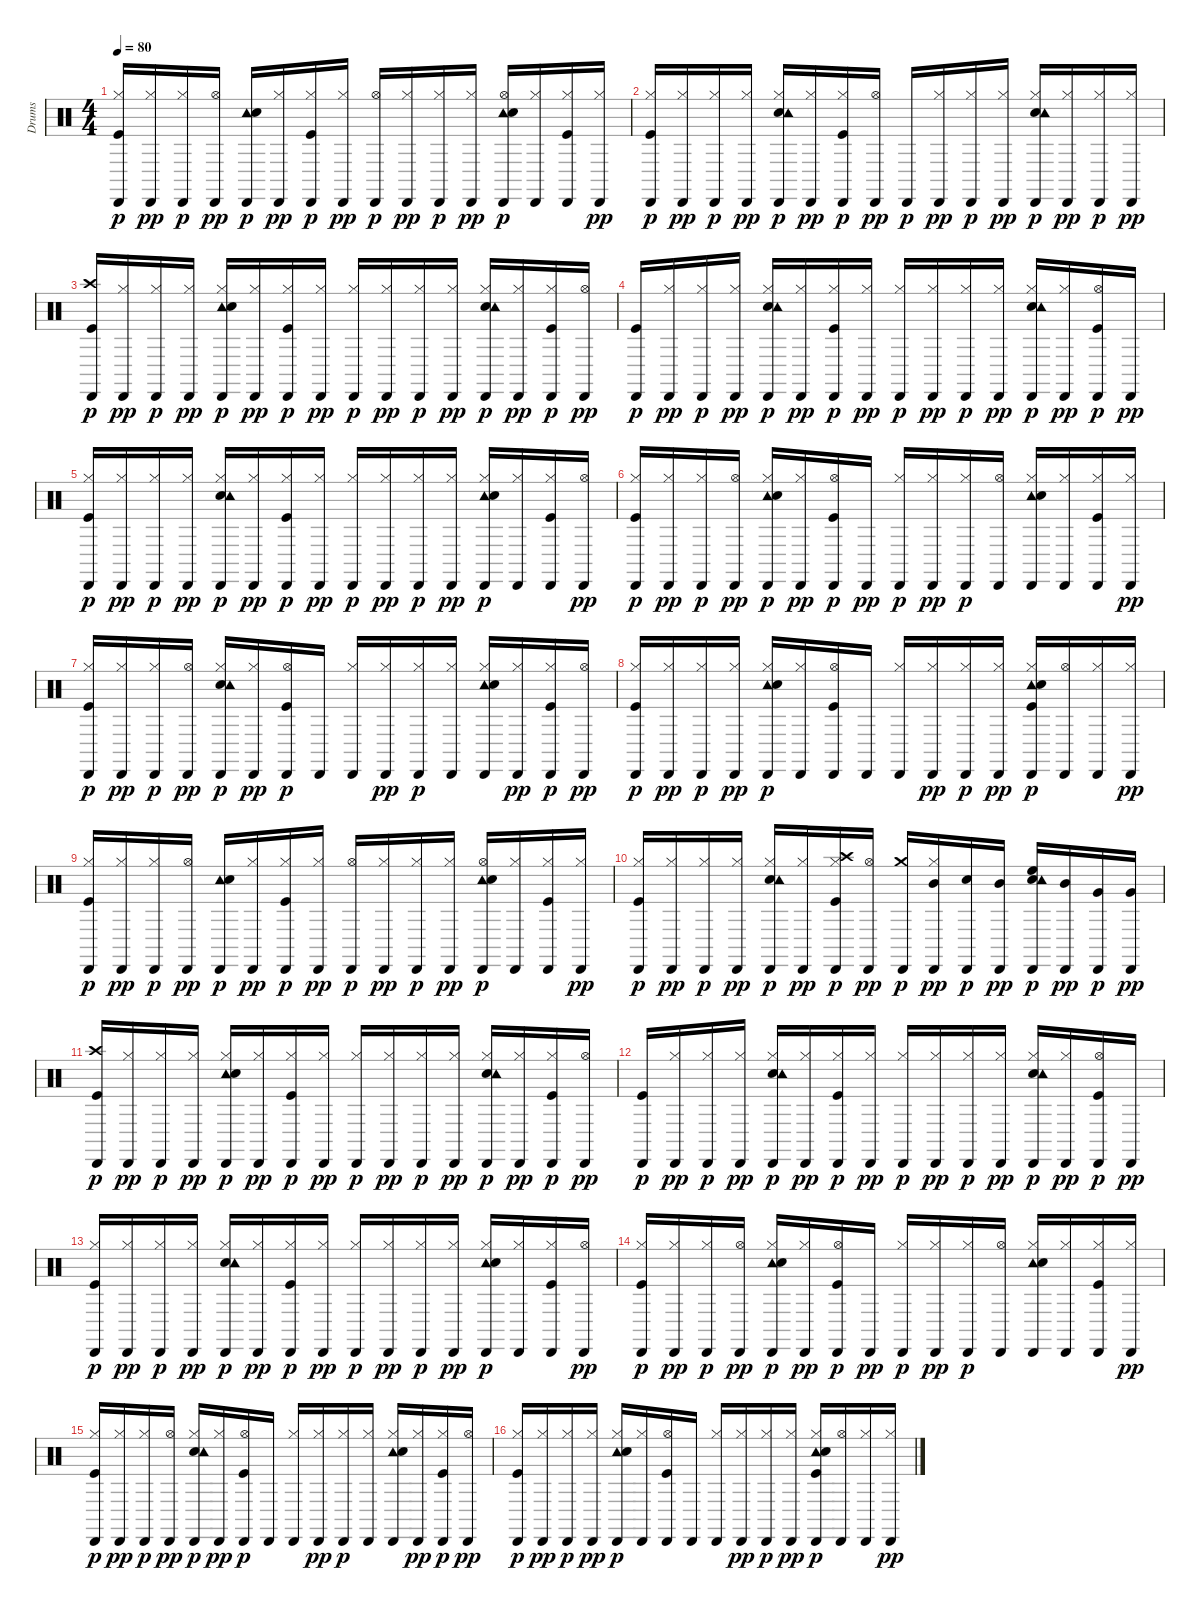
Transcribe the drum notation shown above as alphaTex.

\track ("Drums   " "Drums   ") {instrument percussion}
\staff {score}
\articulation defaults
\ts (4 4)
\tempo 80
\clef neutral
\ks c
("Kick (hit)" "Hi-Hat (closed)" "Cabasa (hit)").16{dy p} ("Hi-Hat (closed)" "Cabasa (hit)").16{dy pp} ("Hi-Hat (closed)" "Cabasa (hit)").16{dy p} ("Hi-Hat (open)" "Cabasa (hit)").16{dy pp} ("Tambourine (hit)" "Snare (hit) 2" "Cabasa (hit)").16{dy p} ("Hi-Hat (closed)" "Cabasa (hit)").16{dy pp} ("Kick (hit)" "Hi-Hat (closed)" "Cabasa (hit)").16{dy p} ("Hi-Hat (closed)" "Cabasa (hit)").16{dy pp} ("Hi-Hat (open)" "Cabasa (hit)").16{dy p} ("Hi-Hat (closed)" "Cabasa (hit)").16{dy pp} ("Hi-Hat (closed)" "Cabasa (hit)").16{dy p} ("Hi-Hat (closed)" "Cabasa (hit)").16{dy pp} ("Tambourine (hit)" "Snare (hit) 2" "Hi-Hat (open)" "Cabasa (hit)").16{dy p} ("Hi-Hat (closed)" "Cabasa (hit)").16 ("Kick (hit)" "Hi-Hat (closed)" "Cabasa (hit)").16 ("Hi-Hat (closed)" "Cabasa (hit)").16{dy pp} |
("Kick (hit)" "Hi-Hat (closed)" "Cabasa (hit)").16{dy p} ("Hi-Hat (closed)" "Cabasa (hit)").16{dy pp} ("Hi-Hat (closed)" "Cabasa (hit)").16{dy p} ("Hi-Hat (closed)" "Cabasa (hit)").16{dy pp} ("Snare (hit) 2" "Hi-Hat (closed)" "Tambourine (hit)" "Cabasa (hit)").16{dy p} ("Hi-Hat (closed)" "Cabasa (hit)").16{dy pp} ("Kick (hit)" "Hi-Hat (closed)" "Cabasa (hit)").16{dy p} ("Hi-Hat (open)" "Cabasa (hit)").16{dy pp} "Cabasa (hit)".16{dy p} ("Hi-Hat (closed)" "Cabasa (hit)").16{dy pp} ("Hi-Hat (closed)" "Cabasa (hit)").16{dy p} ("Hi-Hat (closed)" "Cabasa (hit)").16{dy pp} ("Snare (hit) 2" "Hi-Hat (closed)" "Tambourine (hit)" "Cabasa (hit)").16{dy p} ("Hi-Hat (closed)" "Cabasa (hit)").16{dy pp} ("Hi-Hat (closed)" "Cabasa (hit)").16{dy p} ("Hi-Hat (closed)" "Cabasa (hit)").16{dy pp} |
("Kick (hit)" "Crash high (hit)" "Cabasa (hit)").16{dy p} ("Hi-Hat (closed)" "Cabasa (hit)").16{dy pp} ("Hi-Hat (closed)" "Cabasa (hit)").16{dy p} ("Hi-Hat (closed)" "Cabasa (hit)").16{dy pp} ("Tambourine (hit)" "Snare (hit) 2" "Hi-Hat (closed)" "Cabasa (hit)").16{dy p} ("Hi-Hat (closed)" "Cabasa (hit)").16{dy pp} ("Kick (hit)" "Hi-Hat (closed)" "Cabasa (hit)").16{dy p} ("Hi-Hat (closed)" "Cabasa (hit)").16{dy pp} ("Hi-Hat (closed)" "Cabasa (hit)").16{dy p} ("Hi-Hat (closed)" "Cabasa (hit)").16{dy pp} ("Hi-Hat (closed)" "Cabasa (hit)").16{dy p} ("Hi-Hat (closed)" "Cabasa (hit)").16{dy pp} ("Snare (hit) 2" "Hi-Hat (closed)" "Tambourine (hit)" "Cabasa (hit)").16{dy p} ("Hi-Hat (closed)" "Cabasa (hit)").16{dy pp} ("Kick (hit)" "Hi-Hat (closed)" "Cabasa (hit)").16{dy p} ("Hi-Hat (open)" "Cabasa (hit)").16{dy pp} |
("Kick (hit)" "Cabasa (hit)").16{dy p} ("Hi-Hat (closed)" "Cabasa (hit)").16{dy pp} ("Hi-Hat (closed)" "Cabasa (hit)").16{dy p} ("Hi-Hat (closed)" "Cabasa (hit)").16{dy pp} ("Snare (hit) 2" "Hi-Hat (closed)" "Tambourine (hit)" "Cabasa (hit)").16{dy p} ("Hi-Hat (closed)" "Cabasa (hit)").16{dy pp} ("Kick (hit)" "Hi-Hat (closed)" "Cabasa (hit)").16{dy p} ("Hi-Hat (closed)" "Cabasa (hit)").16{dy pp} ("Hi-Hat (closed)" "Cabasa (hit)").16{dy p} ("Hi-Hat (closed)" "Cabasa (hit)").16{dy pp} ("Hi-Hat (closed)" "Cabasa (hit)").16{dy p} ("Hi-Hat (closed)" "Cabasa (hit)").16{dy pp} ("Snare (hit) 2" "Hi-Hat (closed)" "Tambourine (hit)" "Cabasa (hit)").16{dy p} ("Hi-Hat (closed)" "Cabasa (hit)").16{dy pp} ("Kick (hit)" "Hi-Hat (open)" "Cabasa (hit)").16{dy p} "Cabasa (hit)".16{dy pp} |
("Kick (hit)" "Hi-Hat (closed)" "Cabasa (hit)").16{dy p} ("Hi-Hat (closed)" "Cabasa (hit)").16{dy pp} ("Hi-Hat (closed)" "Cabasa (hit)").16{dy p} ("Hi-Hat (closed)" "Cabasa (hit)").16{dy pp} ("Snare (hit) 2" "Hi-Hat (closed)" "Tambourine (hit)" "Cabasa (hit)").16{dy p} ("Hi-Hat (closed)" "Cabasa (hit)").16{dy pp} ("Kick (hit)" "Hi-Hat (closed)" "Cabasa (hit)").16{dy p} ("Hi-Hat (closed)" "Cabasa (hit)").16{dy pp} ("Hi-Hat (closed)" "Cabasa (hit)").16{dy p} ("Hi-Hat (closed)" "Cabasa (hit)").16{dy pp} ("Hi-Hat (closed)" "Cabasa (hit)").16{dy p} ("Hi-Hat (closed)" "Cabasa (hit)").16{dy pp} ("Tambourine (hit)" "Snare (hit) 2" "Hi-Hat (closed)" "Cabasa (hit)").16{dy p} ("Hi-Hat (closed)" "Cabasa (hit)").16 ("Kick (hit)" "Hi-Hat (closed)" "Cabasa (hit)").16 ("Hi-Hat (open)" "Cabasa (hit)").16{dy pp} |
("Kick (hit)" "Hi-Hat (closed)" "Cabasa (hit)").16{dy p} ("Hi-Hat (closed)" "Cabasa (hit)").16{dy pp} ("Hi-Hat (closed)" "Cabasa (hit)").16{dy p} ("Hi-Hat (open)" "Cabasa (hit)").16{dy pp} ("Tambourine (hit)" "Snare (hit) 2" "Hi-Hat (closed)" "Cabasa (hit)").16{dy p} ("Hi-Hat (closed)" "Cabasa (hit)").16{dy pp} ("Kick (hit)" "Hi-Hat (open)" "Cabasa (hit)").16{dy p} "Cabasa (hit)".16{dy pp} ("Hi-Hat (closed)" "Cabasa (hit)").16{dy p} ("Hi-Hat (closed)" "Cabasa (hit)").16{dy pp} ("Hi-Hat (closed)" "Cabasa (hit)").16{dy p} ("Hi-Hat (open)" "Cabasa (hit)").16 ("Tambourine (hit)" "Snare (hit) 2" "Hi-Hat (closed)" "Cabasa (hit)").16 ("Hi-Hat (closed)" "Cabasa (hit)").16 ("Kick (hit)" "Hi-Hat (closed)" "Cabasa (hit)").16 ("Hi-Hat (closed)" "Cabasa (hit)").16{dy pp} |
("Kick (hit)" "Hi-Hat (closed)" "Cabasa (hit)").16{dy p} ("Hi-Hat (closed)" "Cabasa (hit)").16{dy pp} ("Hi-Hat (closed)" "Cabasa (hit)").16{dy p} ("Hi-Hat (open)" "Cabasa (hit)").16{dy pp} ("Snare (hit) 2" "Hi-Hat (closed)" "Tambourine (hit)" "Cabasa (hit)").16{dy p} ("Hi-Hat (closed)" "Cabasa (hit)").16{dy pp} ("Kick (hit)" "Hi-Hat (open)" "Cabasa (hit)").16{dy p} "Cabasa (hit)".16 ("Hi-Hat (closed)" "Cabasa (hit)").16 ("Hi-Hat (closed)" "Cabasa (hit)").16{dy pp} ("Hi-Hat (closed)" "Cabasa (hit)").16{dy p} ("Hi-Hat (closed)" "Cabasa (hit)").16 ("Tambourine (hit)" "Snare (hit) 2" "Hi-Hat (closed)" "Cabasa (hit)").16 ("Hi-Hat (closed)" "Cabasa (hit)").16{dy pp} ("Kick (hit)" "Hi-Hat (closed)" "Cabasa (hit)").16{dy p} ("Hi-Hat (open)" "Cabasa (hit)").16{dy pp} |
("Kick (hit)" "Hi-Hat (closed)" "Cabasa (hit)").16{dy p} ("Hi-Hat (closed)" "Cabasa (hit)").16{dy pp} ("Hi-Hat (closed)" "Cabasa (hit)").16{dy p} ("Hi-Hat (closed)" "Cabasa (hit)").16{dy pp} ("Tambourine (hit)" "Snare (hit) 2" "Hi-Hat (closed)" "Cabasa (hit)").16{dy p} ("Hi-Hat (closed)" "Cabasa (hit)").16 ("Kick (hit)" "Hi-Hat (open)" "Cabasa (hit)").16 "Cabasa (hit)".16 ("Hi-Hat (closed)" "Cabasa (hit)").16 ("Hi-Hat (closed)" "Cabasa (hit)").16{dy pp} ("Hi-Hat (closed)" "Cabasa (hit)").16{dy p} ("Hi-Hat (closed)" "Cabasa (hit)").16{dy pp} ("Tambourine (hit)" "Kick (hit)" "Snare (hit) 2" "Hi-Hat (closed)" "Cabasa (hit)").16{dy p} ("Hi-Hat (open)" "Cabasa (hit)").16 ("Hi-Hat (closed)" "Cabasa (hit)").16 ("Hi-Hat (closed)" "Cabasa (hit)").16{dy pp} |
("Kick (hit)" "Hi-Hat (closed)" "Cabasa (hit)").16{dy p} ("Hi-Hat (closed)" "Cabasa (hit)").16{dy pp} ("Hi-Hat (closed)" "Cabasa (hit)").16{dy p} ("Hi-Hat (open)" "Cabasa (hit)").16{dy pp} ("Tambourine (hit)" "Snare (hit) 2" "Cabasa (hit)").16{dy p} ("Hi-Hat (closed)" "Cabasa (hit)").16{dy pp} ("Kick (hit)" "Hi-Hat (closed)" "Cabasa (hit)").16{dy p} ("Hi-Hat (closed)" "Cabasa (hit)").16{dy pp} ("Hi-Hat (open)" "Cabasa (hit)").16{dy p} ("Hi-Hat (closed)" "Cabasa (hit)").16{dy pp} ("Hi-Hat (closed)" "Cabasa (hit)").16{dy p} ("Hi-Hat (closed)" "Cabasa (hit)").16{dy pp} ("Tambourine (hit)" "Snare (hit) 2" "Hi-Hat (open)" "Cabasa (hit)").16{dy p} ("Hi-Hat (closed)" "Cabasa (hit)").16 ("Kick (hit)" "Hi-Hat (closed)" "Cabasa (hit)").16 ("Hi-Hat (closed)" "Cabasa (hit)").16{dy pp} |
("Kick (hit)" "Hi-Hat (closed)" "Cabasa (hit)").16{dy p} ("Hi-Hat (closed)" "Cabasa (hit)").16{dy pp} ("Hi-Hat (closed)" "Cabasa (hit)").16{dy p} ("Hi-Hat (closed)" "Cabasa (hit)").16{dy pp} ("Snare (hit) 2" "Hi-Hat (closed)" "Tambourine (hit)" "Cabasa (hit)").16{dy p} ("Hi-Hat (closed)" "Cabasa (hit)").16{dy pp} ("Kick (hit)" "Hi-Hat (closed)" "Crash high (hit)" "Cabasa (hit)").16{dy p} ("Hi-Hat (open)" "Cabasa (hit)").16{dy pp} ("Crash medium (hit)" "Cabasa (hit)").16{dy p} ("Hi-Hat (closed)" "Mid Tom (hit)" "Cabasa (hit)").16{dy pp} ("Snare (hit) 2" "Cabasa (hit)").16{dy p} ("Mid Tom (hit)" "Cabasa (hit)").16{dy pp} ("Snare (hit) 2" "High Floor Tom (hit)" "Tambourine (hit)" "Cabasa (hit)").16{dy p} ("Mid Tom (hit)" "Cabasa (hit)").16{dy pp} ("Very Low Tom (hit)" "Cabasa (hit)").16{dy p} ("Very Low Tom (hit)" "Cabasa (hit)").16{dy pp} |
("Kick (hit)" "Crash high (hit)" "Cabasa (hit)").16{dy p} ("Hi-Hat (closed)" "Cabasa (hit)").16{dy pp} ("Hi-Hat (closed)" "Cabasa (hit)").16{dy p} ("Hi-Hat (closed)" "Cabasa (hit)").16{dy pp} ("Tambourine (hit)" "Snare (hit) 2" "Hi-Hat (closed)" "Cabasa (hit)").16{dy p} ("Hi-Hat (closed)" "Cabasa (hit)").16{dy pp} ("Kick (hit)" "Hi-Hat (closed)" "Cabasa (hit)").16{dy p} ("Hi-Hat (closed)" "Cabasa (hit)").16{dy pp} ("Hi-Hat (closed)" "Cabasa (hit)").16{dy p} ("Hi-Hat (closed)" "Cabasa (hit)").16{dy pp} ("Hi-Hat (closed)" "Cabasa (hit)").16{dy p} ("Hi-Hat (closed)" "Cabasa (hit)").16{dy pp} ("Snare (hit) 2" "Hi-Hat (closed)" "Tambourine (hit)" "Cabasa (hit)").16{dy p} ("Hi-Hat (closed)" "Cabasa (hit)").16{dy pp} ("Kick (hit)" "Hi-Hat (closed)" "Cabasa (hit)").16{dy p} ("Hi-Hat (open)" "Cabasa (hit)").16{dy pp} |
("Kick (hit)" "Cabasa (hit)").16{dy p} ("Hi-Hat (closed)" "Cabasa (hit)").16{dy pp} ("Hi-Hat (closed)" "Cabasa (hit)").16{dy p} ("Hi-Hat (closed)" "Cabasa (hit)").16{dy pp} ("Snare (hit) 2" "Hi-Hat (closed)" "Tambourine (hit)" "Cabasa (hit)").16{dy p} ("Hi-Hat (closed)" "Cabasa (hit)").16{dy pp} ("Kick (hit)" "Hi-Hat (closed)" "Cabasa (hit)").16{dy p} ("Hi-Hat (closed)" "Cabasa (hit)").16{dy pp} ("Hi-Hat (closed)" "Cabasa (hit)").16{dy p} ("Hi-Hat (closed)" "Cabasa (hit)").16{dy pp} ("Hi-Hat (closed)" "Cabasa (hit)").16{dy p} ("Hi-Hat (closed)" "Cabasa (hit)").16{dy pp} ("Snare (hit) 2" "Hi-Hat (closed)" "Tambourine (hit)" "Cabasa (hit)").16{dy p} ("Hi-Hat (closed)" "Cabasa (hit)").16{dy pp} ("Kick (hit)" "Hi-Hat (open)" "Cabasa (hit)").16{dy p} "Cabasa (hit)".16{dy pp} |
("Kick (hit)" "Hi-Hat (closed)" "Cabasa (hit)").16{dy p} ("Hi-Hat (closed)" "Cabasa (hit)").16{dy pp} ("Hi-Hat (closed)" "Cabasa (hit)").16{dy p} ("Hi-Hat (closed)" "Cabasa (hit)").16{dy pp} ("Snare (hit) 2" "Hi-Hat (closed)" "Tambourine (hit)" "Cabasa (hit)").16{dy p} ("Hi-Hat (closed)" "Cabasa (hit)").16{dy pp} ("Kick (hit)" "Hi-Hat (closed)" "Cabasa (hit)").16{dy p} ("Hi-Hat (closed)" "Cabasa (hit)").16{dy pp} ("Hi-Hat (closed)" "Cabasa (hit)").16{dy p} ("Hi-Hat (closed)" "Cabasa (hit)").16{dy pp} ("Hi-Hat (closed)" "Cabasa (hit)").16{dy p} ("Hi-Hat (closed)" "Cabasa (hit)").16{dy pp} ("Tambourine (hit)" "Snare (hit) 2" "Hi-Hat (closed)" "Cabasa (hit)").16{dy p} ("Hi-Hat (closed)" "Cabasa (hit)").16 ("Kick (hit)" "Hi-Hat (closed)" "Cabasa (hit)").16 ("Hi-Hat (open)" "Cabasa (hit)").16{dy pp} |
("Kick (hit)" "Hi-Hat (closed)" "Cabasa (hit)").16{dy p} ("Hi-Hat (closed)" "Cabasa (hit)").16{dy pp} ("Hi-Hat (closed)" "Cabasa (hit)").16{dy p} ("Hi-Hat (open)" "Cabasa (hit)").16{dy pp} ("Tambourine (hit)" "Snare (hit) 2" "Hi-Hat (closed)" "Cabasa (hit)").16{dy p} ("Hi-Hat (closed)" "Cabasa (hit)").16{dy pp} ("Kick (hit)" "Hi-Hat (open)" "Cabasa (hit)").16{dy p} "Cabasa (hit)".16{dy pp} ("Hi-Hat (closed)" "Cabasa (hit)").16{dy p} ("Hi-Hat (closed)" "Cabasa (hit)").16{dy pp} ("Hi-Hat (closed)" "Cabasa (hit)").16{dy p} ("Hi-Hat (open)" "Cabasa (hit)").16 ("Tambourine (hit)" "Snare (hit) 2" "Hi-Hat (closed)" "Cabasa (hit)").16 ("Hi-Hat (closed)" "Cabasa (hit)").16 ("Kick (hit)" "Hi-Hat (closed)" "Cabasa (hit)").16 ("Hi-Hat (closed)" "Cabasa (hit)").16{dy pp} |
("Kick (hit)" "Hi-Hat (closed)" "Cabasa (hit)").16{dy p} ("Hi-Hat (closed)" "Cabasa (hit)").16{dy pp} ("Hi-Hat (closed)" "Cabasa (hit)").16{dy p} ("Hi-Hat (open)" "Cabasa (hit)").16{dy pp} ("Snare (hit) 2" "Hi-Hat (closed)" "Tambourine (hit)" "Cabasa (hit)").16{dy p} ("Hi-Hat (closed)" "Cabasa (hit)").16{dy pp} ("Kick (hit)" "Hi-Hat (open)" "Cabasa (hit)").16{dy p} "Cabasa (hit)".16 ("Hi-Hat (closed)" "Cabasa (hit)").16 ("Hi-Hat (closed)" "Cabasa (hit)").16{dy pp} ("Hi-Hat (closed)" "Cabasa (hit)").16{dy p} ("Hi-Hat (closed)" "Cabasa (hit)").16 ("Tambourine (hit)" "Snare (hit) 2" "Hi-Hat (closed)" "Cabasa (hit)").16 ("Hi-Hat (closed)" "Cabasa (hit)").16{dy pp} ("Kick (hit)" "Hi-Hat (closed)" "Cabasa (hit)").16{dy p} ("Hi-Hat (open)" "Cabasa (hit)").16{dy pp} |
("Kick (hit)" "Hi-Hat (closed)" "Cabasa (hit)").16{dy p} ("Hi-Hat (closed)" "Cabasa (hit)").16{dy pp} ("Hi-Hat (closed)" "Cabasa (hit)").16{dy p} ("Hi-Hat (closed)" "Cabasa (hit)").16{dy pp} ("Tambourine (hit)" "Snare (hit) 2" "Hi-Hat (closed)" "Cabasa (hit)").16{dy p} ("Hi-Hat (closed)" "Cabasa (hit)").16 ("Kick (hit)" "Hi-Hat (open)" "Cabasa (hit)").16 "Cabasa (hit)".16 ("Hi-Hat (closed)" "Cabasa (hit)").16 ("Hi-Hat (closed)" "Cabasa (hit)").16{dy pp} ("Hi-Hat (closed)" "Cabasa (hit)").16{dy p} ("Hi-Hat (closed)" "Cabasa (hit)").16{dy pp} ("Tambourine (hit)" "Kick (hit)" "Snare (hit) 2" "Hi-Hat (closed)" "Cabasa (hit)").16{dy p} ("Hi-Hat (open)" "Cabasa (hit)").16 ("Hi-Hat (closed)" "Cabasa (hit)").16 ("Hi-Hat (closed)" "Cabasa (hit)").16{dy pp}
